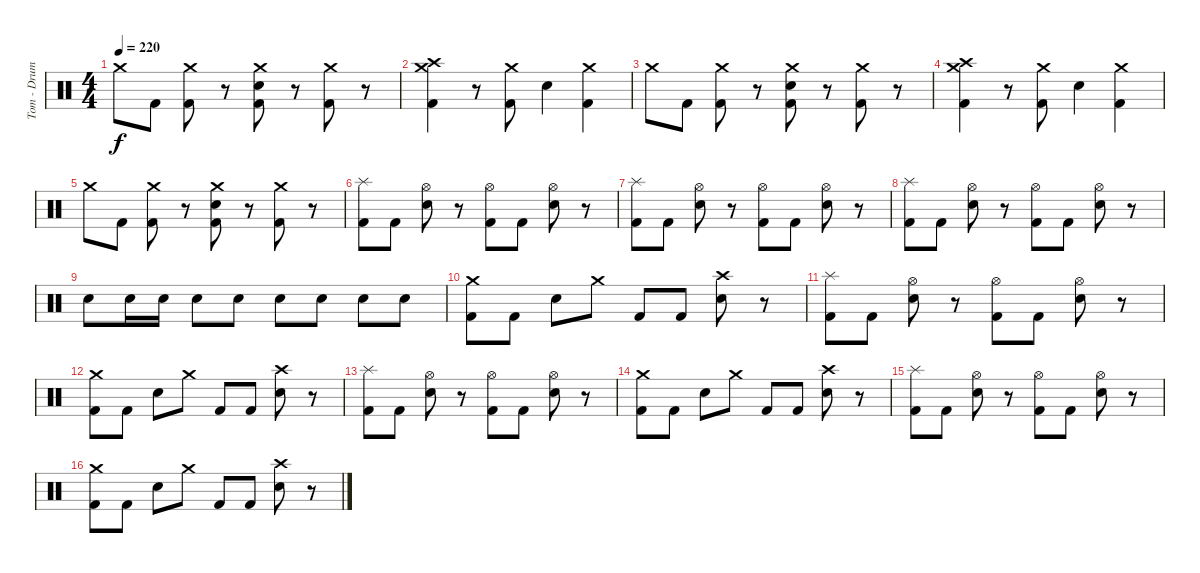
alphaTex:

\track ("Tom - Drums" "Tom - Drum") {instrument percussion}
\staff {score}
\articulation defaults
\ts (4 4)
\tempo 220
\clef neutral
\ks c "Crash medium (hit)".8{dy f} "Kick (hit) 2".8
("Crash medium (hit)" "Kick (hit) 2").8 r.8 ("Crash medium (hit)" "Electric Snare (hit)" "Kick (hit) 2").8 r.8 ("Crash medium (hit)" "Kick (hit) 2").8 r.8 |
("Crash high (hit)" "Crash medium (hit)" "Kick (hit) 2").4 r.8 ("Crash medium (hit)" "Kick (hit) 2").8 "Electric Snare (hit)".4 ("Crash medium (hit)" "Kick (hit) 2").4 |
"Crash medium (hit)".8 "Kick (hit) 2".8 ("Crash medium (hit)" "Kick (hit) 2").8 r.8 ("Crash medium (hit)" "Electric Snare (hit)" "Kick (hit) 2").8 r.8 ("Crash medium (hit)" "Kick (hit) 2").8 r.8 |
("Crash high (hit)" "Crash medium (hit)" "Kick (hit) 2").4 r.8 ("Crash medium (hit)" "Kick (hit) 2").8 "Electric Snare (hit)".4 ("Crash medium (hit)" "Kick (hit) 2").4 |
"Crash medium (hit)".8 "Kick (hit) 2".8 ("Crash medium (hit)" "Kick (hit) 2").8 r.8 ("Crash medium (hit)" "Electric Snare (hit)" "Kick (hit) 2").8 r.8 ("Crash medium (hit)" "Kick (hit) 2").8 r.8 |
("Splash (hit)" "Kick (hit) 2").8 "Kick (hit) 2".8 ("Hi-Hat (open)" "Electric Snare (hit)").8 r.8 ("Hi-Hat (open)" "Kick (hit) 2").8 "Kick (hit) 2".8 ("Hi-Hat (open)" "Electric Snare (hit)").8 r.8 |
("Splash (hit)" "Kick (hit) 2").8 "Kick (hit) 2".8 ("Hi-Hat (open)" "Electric Snare (hit)").8 r.8 ("Hi-Hat (open)" "Kick (hit) 2").8 "Kick (hit) 2".8 ("Hi-Hat (open)" "Electric Snare (hit)").8 r.8 |
("Splash (hit)" "Kick (hit) 2").8 "Kick (hit) 2".8 ("Hi-Hat (open)" "Electric Snare (hit)").8 r.8 ("Hi-Hat (open)" "Kick (hit) 2").8 "Kick (hit) 2".8 ("Hi-Hat (open)" "Electric Snare (hit)").8 r.8 |
"Electric Snare (hit)".8 "Electric Snare (hit)".16 "Electric Snare (hit)".16 "Electric Snare (hit)".8 "Electric Snare (hit)".8 "Electric Snare (hit)".8 "Electric Snare (hit)".8 "Electric Snare (hit)".8 "Electric Snare (hit)".8 |
("Crash medium (hit)" "Kick (hit) 2").8 "Kick (hit) 2".8 "Electric Snare (hit)".8 "Crash medium (hit)".8 "Kick (hit) 2".8 "Kick (hit) 2".8 ("Crash high (hit)" "Electric Snare (hit)").8 r.8 |
("Splash (hit)" "Kick (hit) 2").8 "Kick (hit) 2".8 ("Hi-Hat (open)" "Electric Snare (hit)").8 r.8 ("Hi-Hat (open)" "Kick (hit) 2").8 "Kick (hit) 2".8 ("Hi-Hat (open)" "Electric Snare (hit)").8 r.8 |
("Crash medium (hit)" "Kick (hit) 2").8 "Kick (hit) 2".8 "Electric Snare (hit)".8 "Crash medium (hit)".8 "Kick (hit) 2".8 "Kick (hit) 2".8 ("Crash high (hit)" "Electric Snare (hit)").8 r.8 |
("Splash (hit)" "Kick (hit) 2").8 "Kick (hit) 2".8 ("Hi-Hat (open)" "Electric Snare (hit)").8 r.8 ("Hi-Hat (open)" "Kick (hit) 2").8 "Kick (hit) 2".8 ("Hi-Hat (open)" "Electric Snare (hit)").8 r.8 |
("Crash medium (hit)" "Kick (hit) 2").8 "Kick (hit) 2".8 "Electric Snare (hit)".8 "Crash medium (hit)".8 "Kick (hit) 2".8 "Kick (hit) 2".8 ("Crash high (hit)" "Electric Snare (hit)").8 r.8 |
("Splash (hit)" "Kick (hit) 2").8 "Kick (hit) 2".8 ("Hi-Hat (open)" "Electric Snare (hit)").8 r.8 ("Hi-Hat (open)" "Kick (hit) 2").8 "Kick (hit) 2".8 ("Hi-Hat (open)" "Electric Snare (hit)").8 r.8 |
("Crash medium (hit)" "Kick (hit) 2").8 "Kick (hit) 2".8 "Electric Snare (hit)".8 "Crash medium (hit)".8 "Kick (hit) 2".8 "Kick (hit) 2".8 ("Crash high (hit)" "Electric Snare (hit)").8 r.8
